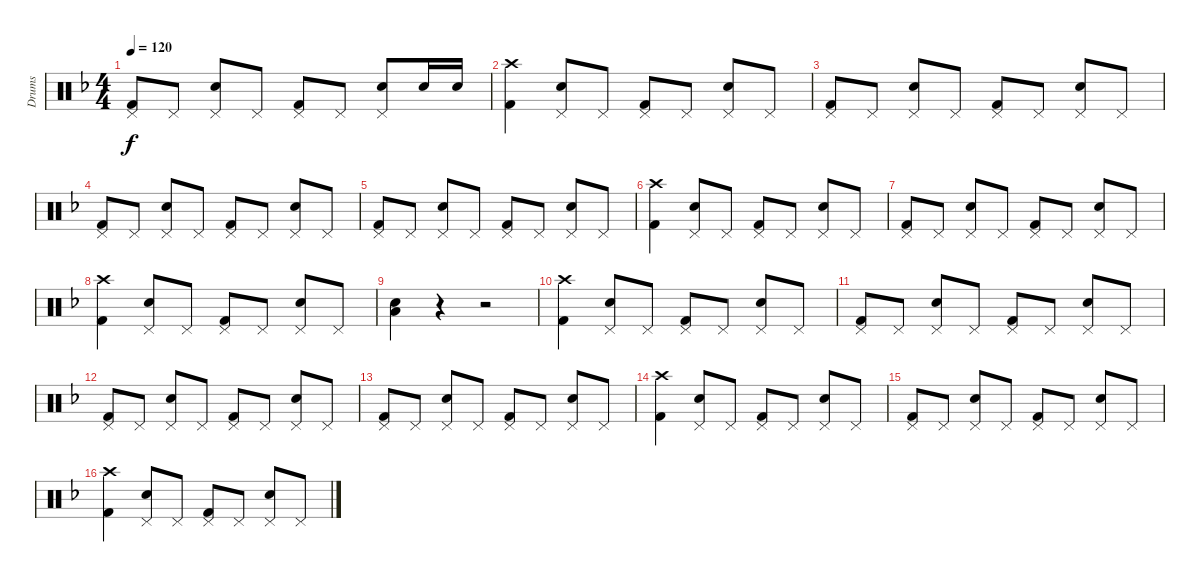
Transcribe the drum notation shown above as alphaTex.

\track ("Drums" "Drums") {instrument percussion}
\staff {score}
\articulation defaults
\ts (4 4)
\tempo 120
\clef neutral
\ks f
("Pedal Hi-Hat (hit)" "Kick (hit) 2").8{dy f} "Pedal Hi-Hat (hit)".8 ("Pedal Hi-Hat (hit)" "Electric Snare (hit)").8 "Pedal Hi-Hat (hit)".8 ("Pedal Hi-Hat (hit)" "Kick (hit) 2").8 "Pedal Hi-Hat (hit)".8 ("Pedal Hi-Hat (hit)" "Electric Snare (hit)").8 "Electric Snare (hit)".16 "Electric Snare (hit)".16 |
("Crash high (hit)" "Kick (hit) 2").4 ("Pedal Hi-Hat (hit)" "Electric Snare (hit)").8 "Pedal Hi-Hat (hit)".8 ("Pedal Hi-Hat (hit)" "Kick (hit) 2").8 "Pedal Hi-Hat (hit)".8 ("Pedal Hi-Hat (hit)" "Electric Snare (hit)").8 "Pedal Hi-Hat (hit)".8 |
("Pedal Hi-Hat (hit)" "Kick (hit) 2").8 "Pedal Hi-Hat (hit)".8 ("Pedal Hi-Hat (hit)" "Electric Snare (hit)").8 "Pedal Hi-Hat (hit)".8 ("Pedal Hi-Hat (hit)" "Kick (hit) 2").8 "Pedal Hi-Hat (hit)".8 ("Pedal Hi-Hat (hit)" "Electric Snare (hit)").8 "Pedal Hi-Hat (hit)".8 |
("Pedal Hi-Hat (hit)" "Kick (hit) 2").8 "Pedal Hi-Hat (hit)".8 ("Pedal Hi-Hat (hit)" "Electric Snare (hit)").8 "Pedal Hi-Hat (hit)".8 ("Pedal Hi-Hat (hit)" "Kick (hit) 2").8 "Pedal Hi-Hat (hit)".8 ("Pedal Hi-Hat (hit)" "Electric Snare (hit)").8 "Pedal Hi-Hat (hit)".8 |
("Pedal Hi-Hat (hit)" "Kick (hit) 2").8 "Pedal Hi-Hat (hit)".8 ("Pedal Hi-Hat (hit)" "Electric Snare (hit)").8 "Pedal Hi-Hat (hit)".8 ("Pedal Hi-Hat (hit)" "Kick (hit) 2").8 "Pedal Hi-Hat (hit)".8 ("Pedal Hi-Hat (hit)" "Electric Snare (hit)").8 "Pedal Hi-Hat (hit)".8 |
("Crash high (hit)" "Kick (hit) 2").4 ("Pedal Hi-Hat (hit)" "Electric Snare (hit)").8 "Pedal Hi-Hat (hit)".8 ("Pedal Hi-Hat (hit)" "Kick (hit) 2").8 "Pedal Hi-Hat (hit)".8 ("Pedal Hi-Hat (hit)" "Electric Snare (hit)").8 "Pedal Hi-Hat (hit)".8 |
("Pedal Hi-Hat (hit)" "Kick (hit) 2").8 "Pedal Hi-Hat (hit)".8 ("Pedal Hi-Hat (hit)" "Electric Snare (hit)").8 "Pedal Hi-Hat (hit)".8 ("Pedal Hi-Hat (hit)" "Kick (hit) 2").8 "Pedal Hi-Hat (hit)".8 ("Pedal Hi-Hat (hit)" "Electric Snare (hit)").8 "Pedal Hi-Hat (hit)".8 |
("Crash high (hit)" "Kick (hit) 2").4 ("Pedal Hi-Hat (hit)" "Electric Snare (hit)").8 "Pedal Hi-Hat (hit)".8 ("Pedal Hi-Hat (hit)" "Kick (hit) 2").8 "Pedal Hi-Hat (hit)".8 ("Pedal Hi-Hat (hit)" "Electric Snare (hit)").8 "Pedal Hi-Hat (hit)".8 |
("Electric Snare (hit)" "Low Floor Tom (hit)").4 r.4 r.2 |
("Crash high (hit)" "Kick (hit) 2").4 ("Pedal Hi-Hat (hit)" "Electric Snare (hit)").8 "Pedal Hi-Hat (hit)".8 ("Pedal Hi-Hat (hit)" "Kick (hit) 2").8 "Pedal Hi-Hat (hit)".8 ("Pedal Hi-Hat (hit)" "Electric Snare (hit)").8 "Pedal Hi-Hat (hit)".8 |
("Pedal Hi-Hat (hit)" "Kick (hit) 2").8 "Pedal Hi-Hat (hit)".8 ("Pedal Hi-Hat (hit)" "Electric Snare (hit)").8 "Pedal Hi-Hat (hit)".8 ("Pedal Hi-Hat (hit)" "Kick (hit) 2").8 "Pedal Hi-Hat (hit)".8 ("Pedal Hi-Hat (hit)" "Electric Snare (hit)").8 "Pedal Hi-Hat (hit)".8 |
("Pedal Hi-Hat (hit)" "Kick (hit) 2").8 "Pedal Hi-Hat (hit)".8 ("Pedal Hi-Hat (hit)" "Electric Snare (hit)").8 "Pedal Hi-Hat (hit)".8 ("Pedal Hi-Hat (hit)" "Kick (hit) 2").8 "Pedal Hi-Hat (hit)".8 ("Pedal Hi-Hat (hit)" "Electric Snare (hit)").8 "Pedal Hi-Hat (hit)".8 |
("Pedal Hi-Hat (hit)" "Kick (hit) 2").8 "Pedal Hi-Hat (hit)".8 ("Pedal Hi-Hat (hit)" "Electric Snare (hit)").8 "Pedal Hi-Hat (hit)".8 ("Pedal Hi-Hat (hit)" "Kick (hit) 2").8 "Pedal Hi-Hat (hit)".8 ("Pedal Hi-Hat (hit)" "Electric Snare (hit)").8 "Pedal Hi-Hat (hit)".8 |
("Crash high (hit)" "Kick (hit) 2").4 ("Pedal Hi-Hat (hit)" "Electric Snare (hit)").8 "Pedal Hi-Hat (hit)".8 ("Pedal Hi-Hat (hit)" "Kick (hit) 2").8 "Pedal Hi-Hat (hit)".8 ("Pedal Hi-Hat (hit)" "Electric Snare (hit)").8 "Pedal Hi-Hat (hit)".8 |
("Pedal Hi-Hat (hit)" "Kick (hit) 2").8 "Pedal Hi-Hat (hit)".8 ("Pedal Hi-Hat (hit)" "Electric Snare (hit)").8 "Pedal Hi-Hat (hit)".8 ("Pedal Hi-Hat (hit)" "Kick (hit) 2").8 "Pedal Hi-Hat (hit)".8 ("Pedal Hi-Hat (hit)" "Electric Snare (hit)").8 "Pedal Hi-Hat (hit)".8 |
("Crash high (hit)" "Kick (hit) 2").4 ("Pedal Hi-Hat (hit)" "Electric Snare (hit)").8 "Pedal Hi-Hat (hit)".8 ("Pedal Hi-Hat (hit)" "Kick (hit) 2").8 "Pedal Hi-Hat (hit)".8 ("Pedal Hi-Hat (hit)" "Electric Snare (hit)").8 "Pedal Hi-Hat (hit)".8
